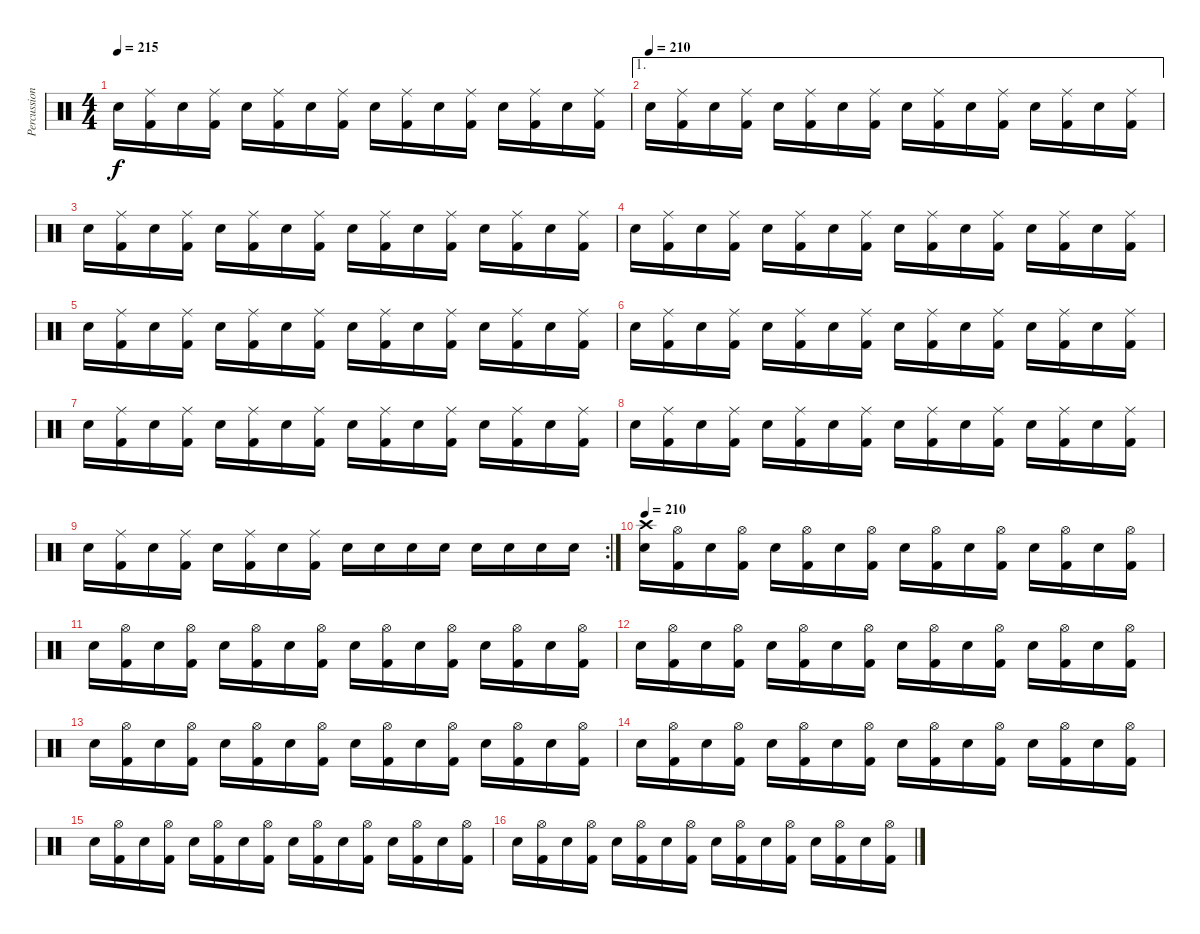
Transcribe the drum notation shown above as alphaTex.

\track ("Percussion" "Percussion") {instrument percussion}
\staff {score}
\articulation defaults
\ts (4 4)
\tempo 215
\clef neutral
\ks c "Electric Snare (hit)".16{dy f}
("Ride (middle)" "Kick (hit) 2").16 "Electric Snare (hit)".16 ("Ride (middle)" "Kick (hit) 2").16 "Electric Snare (hit)".16 ("Ride (middle)" "Kick (hit) 2").16 "Electric Snare (hit)".16 ("Ride (middle)" "Kick (hit) 2").16 "Electric Snare (hit)".16 ("Ride (middle)" "Kick (hit) 2").16 "Electric Snare (hit)".16 ("Ride (middle)" "Kick (hit) 2").16 "Electric Snare (hit)".16 ("Ride (middle)" "Kick (hit) 2").16 "Electric Snare (hit)".16 ("Ride (middle)" "Kick (hit) 2").16 |
\ae 1
\tempo (210)
"Electric Snare (hit)".16 ("Ride (middle)" "Kick (hit) 2").16 "Electric Snare (hit)".16 ("Ride (middle)" "Kick (hit) 2").16 "Electric Snare (hit)".16 ("Ride (middle)" "Kick (hit) 2").16 "Electric Snare (hit)".16 ("Ride (middle)" "Kick (hit) 2").16 "Electric Snare (hit)".16 ("Ride (middle)" "Kick (hit) 2").16 "Electric Snare (hit)".16 ("Ride (middle)" "Kick (hit) 2").16 "Electric Snare (hit)".16 ("Ride (middle)" "Kick (hit) 2").16 "Electric Snare (hit)".16 ("Ride (middle)" "Kick (hit) 2").16 |
"Electric Snare (hit)".16 ("Ride (middle)" "Kick (hit) 2").16 "Electric Snare (hit)".16 ("Ride (middle)" "Kick (hit) 2").16 "Electric Snare (hit)".16 ("Ride (middle)" "Kick (hit) 2").16 "Electric Snare (hit)".16 ("Ride (middle)" "Kick (hit) 2").16 "Electric Snare (hit)".16 ("Ride (middle)" "Kick (hit) 2").16 "Electric Snare (hit)".16 ("Ride (middle)" "Kick (hit) 2").16 "Electric Snare (hit)".16 ("Ride (middle)" "Kick (hit) 2").16 "Electric Snare (hit)".16 ("Ride (middle)" "Kick (hit) 2").16 |
"Electric Snare (hit)".16 ("Ride (middle)" "Kick (hit) 2").16 "Electric Snare (hit)".16 ("Ride (middle)" "Kick (hit) 2").16 "Electric Snare (hit)".16 ("Ride (middle)" "Kick (hit) 2").16 "Electric Snare (hit)".16 ("Ride (middle)" "Kick (hit) 2").16 "Electric Snare (hit)".16 ("Ride (middle)" "Kick (hit) 2").16 "Electric Snare (hit)".16 ("Ride (middle)" "Kick (hit) 2").16 "Electric Snare (hit)".16 ("Ride (middle)" "Kick (hit) 2").16 "Electric Snare (hit)".16 ("Ride (middle)" "Kick (hit) 2").16 |
"Electric Snare (hit)".16 ("Ride (middle)" "Kick (hit) 2").16 "Electric Snare (hit)".16 ("Ride (middle)" "Kick (hit) 2").16 "Electric Snare (hit)".16 ("Ride (middle)" "Kick (hit) 2").16 "Electric Snare (hit)".16 ("Ride (middle)" "Kick (hit) 2").16 "Electric Snare (hit)".16 ("Ride (middle)" "Kick (hit) 2").16 "Electric Snare (hit)".16 ("Ride (middle)" "Kick (hit) 2").16 "Electric Snare (hit)".16 ("Ride (middle)" "Kick (hit) 2").16 "Electric Snare (hit)".16 ("Ride (middle)" "Kick (hit) 2").16 |
"Electric Snare (hit)".16 ("Ride (middle)" "Kick (hit) 2").16 "Electric Snare (hit)".16 ("Ride (middle)" "Kick (hit) 2").16 "Electric Snare (hit)".16 ("Ride (middle)" "Kick (hit) 2").16 "Electric Snare (hit)".16 ("Ride (middle)" "Kick (hit) 2").16 "Electric Snare (hit)".16 ("Ride (middle)" "Kick (hit) 2").16 "Electric Snare (hit)".16 ("Ride (middle)" "Kick (hit) 2").16 "Electric Snare (hit)".16 ("Ride (middle)" "Kick (hit) 2").16 "Electric Snare (hit)".16 ("Ride (middle)" "Kick (hit) 2").16 |
"Electric Snare (hit)".16 ("Ride (middle)" "Kick (hit) 2").16 "Electric Snare (hit)".16 ("Ride (middle)" "Kick (hit) 2").16 "Electric Snare (hit)".16 ("Ride (middle)" "Kick (hit) 2").16 "Electric Snare (hit)".16 ("Ride (middle)" "Kick (hit) 2").16 "Electric Snare (hit)".16 ("Ride (middle)" "Kick (hit) 2").16 "Electric Snare (hit)".16 ("Ride (middle)" "Kick (hit) 2").16 "Electric Snare (hit)".16 ("Ride (middle)" "Kick (hit) 2").16 "Electric Snare (hit)".16 ("Ride (middle)" "Kick (hit) 2").16 |
"Electric Snare (hit)".16 ("Ride (middle)" "Kick (hit) 2").16 "Electric Snare (hit)".16 ("Ride (middle)" "Kick (hit) 2").16 "Electric Snare (hit)".16 ("Ride (middle)" "Kick (hit) 2").16 "Electric Snare (hit)".16 ("Ride (middle)" "Kick (hit) 2").16 "Electric Snare (hit)".16 ("Ride (middle)" "Kick (hit) 2").16 "Electric Snare (hit)".16 ("Ride (middle)" "Kick (hit) 2").16 "Electric Snare (hit)".16 ("Ride (middle)" "Kick (hit) 2").16 "Electric Snare (hit)".16 ("Ride (middle)" "Kick (hit) 2").16 |
\rc 2 "Electric Snare (hit)".16
("Ride (middle)" "Kick (hit) 2").16 "Electric Snare (hit)".16 ("Ride (middle)" "Kick (hit) 2").16 "Electric Snare (hit)".16 ("Ride (middle)" "Kick (hit) 2").16 "Electric Snare (hit)".16 ("Ride (middle)" "Kick (hit) 2").16 "Electric Snare (hit)".16 "Electric Snare (hit)".16 "Electric Snare (hit)".16 "Electric Snare (hit)".16 "Electric Snare (hit)".16 "Electric Snare (hit)".16 "Electric Snare (hit)".16 "Electric Snare (hit)".16 |
\tempo 210
("Crash high (hit)" "Electric Snare (hit)").16 ("Hi-Hat (open)" "Kick (hit) 2").16 "Electric Snare (hit)".16 ("Hi-Hat (open)" "Kick (hit) 2").16 "Electric Snare (hit)".16 ("Hi-Hat (open)" "Kick (hit) 2").16 "Electric Snare (hit)".16 ("Hi-Hat (open)" "Kick (hit) 2").16 "Electric Snare (hit)".16 ("Hi-Hat (open)" "Kick (hit) 2").16 "Electric Snare (hit)".16 ("Hi-Hat (open)" "Kick (hit) 2").16 "Electric Snare (hit)".16 ("Hi-Hat (open)" "Kick (hit) 2").16 "Electric Snare (hit)".16 ("Hi-Hat (open)" "Kick (hit) 2").16 |
"Electric Snare (hit)".16 ("Hi-Hat (open)" "Kick (hit) 2").16 "Electric Snare (hit)".16 ("Hi-Hat (open)" "Kick (hit) 2").16 "Electric Snare (hit)".16 ("Hi-Hat (open)" "Kick (hit) 2").16 "Electric Snare (hit)".16 ("Hi-Hat (open)" "Kick (hit) 2").16 "Electric Snare (hit)".16 ("Hi-Hat (open)" "Kick (hit) 2").16 "Electric Snare (hit)".16 ("Hi-Hat (open)" "Kick (hit) 2").16 "Electric Snare (hit)".16 ("Hi-Hat (open)" "Kick (hit) 2").16 "Electric Snare (hit)".16 ("Hi-Hat (open)" "Kick (hit) 2").16 |
"Electric Snare (hit)".16 ("Hi-Hat (open)" "Kick (hit) 2").16 "Electric Snare (hit)".16 ("Hi-Hat (open)" "Kick (hit) 2").16 "Electric Snare (hit)".16 ("Hi-Hat (open)" "Kick (hit) 2").16 "Electric Snare (hit)".16 ("Hi-Hat (open)" "Kick (hit) 2").16 "Electric Snare (hit)".16 ("Hi-Hat (open)" "Kick (hit) 2").16 "Electric Snare (hit)".16 ("Hi-Hat (open)" "Kick (hit) 2").16 "Electric Snare (hit)".16 ("Hi-Hat (open)" "Kick (hit) 2").16 "Electric Snare (hit)".16 ("Hi-Hat (open)" "Kick (hit) 2").16 |
"Electric Snare (hit)".16 ("Hi-Hat (open)" "Kick (hit) 2").16 "Electric Snare (hit)".16 ("Hi-Hat (open)" "Kick (hit) 2").16 "Electric Snare (hit)".16 ("Hi-Hat (open)" "Kick (hit) 2").16 "Electric Snare (hit)".16 ("Hi-Hat (open)" "Kick (hit) 2").16 "Electric Snare (hit)".16 ("Hi-Hat (open)" "Kick (hit) 2").16 "Electric Snare (hit)".16 ("Hi-Hat (open)" "Kick (hit) 2").16 "Electric Snare (hit)".16 ("Hi-Hat (open)" "Kick (hit) 2").16 "Electric Snare (hit)".16 ("Hi-Hat (open)" "Kick (hit) 2").16 |
"Electric Snare (hit)".16 ("Hi-Hat (open)" "Kick (hit) 2").16 "Electric Snare (hit)".16 ("Hi-Hat (open)" "Kick (hit) 2").16 "Electric Snare (hit)".16 ("Hi-Hat (open)" "Kick (hit) 2").16 "Electric Snare (hit)".16 ("Hi-Hat (open)" "Kick (hit) 2").16 "Electric Snare (hit)".16 ("Hi-Hat (open)" "Kick (hit) 2").16 "Electric Snare (hit)".16 ("Hi-Hat (open)" "Kick (hit) 2").16 "Electric Snare (hit)".16 ("Hi-Hat (open)" "Kick (hit) 2").16 "Electric Snare (hit)".16 ("Hi-Hat (open)" "Kick (hit) 2").16 |
"Electric Snare (hit)".16 ("Hi-Hat (open)" "Kick (hit) 2").16 "Electric Snare (hit)".16 ("Hi-Hat (open)" "Kick (hit) 2").16 "Electric Snare (hit)".16 ("Hi-Hat (open)" "Kick (hit) 2").16 "Electric Snare (hit)".16 ("Hi-Hat (open)" "Kick (hit) 2").16 "Electric Snare (hit)".16 ("Hi-Hat (open)" "Kick (hit) 2").16 "Electric Snare (hit)".16 ("Hi-Hat (open)" "Kick (hit) 2").16 "Electric Snare (hit)".16 ("Hi-Hat (open)" "Kick (hit) 2").16 "Electric Snare (hit)".16 ("Hi-Hat (open)" "Kick (hit) 2").16 |
"Electric Snare (hit)".16 ("Hi-Hat (open)" "Kick (hit) 2").16 "Electric Snare (hit)".16 ("Hi-Hat (open)" "Kick (hit) 2").16 "Electric Snare (hit)".16 ("Hi-Hat (open)" "Kick (hit) 2").16 "Electric Snare (hit)".16 ("Hi-Hat (open)" "Kick (hit) 2").16 "Electric Snare (hit)".16 ("Hi-Hat (open)" "Kick (hit) 2").16 "Electric Snare (hit)".16 ("Hi-Hat (open)" "Kick (hit) 2").16 "Electric Snare (hit)".16 ("Hi-Hat (open)" "Kick (hit) 2").16 "Electric Snare (hit)".16 ("Hi-Hat (open)" "Kick (hit) 2").16
